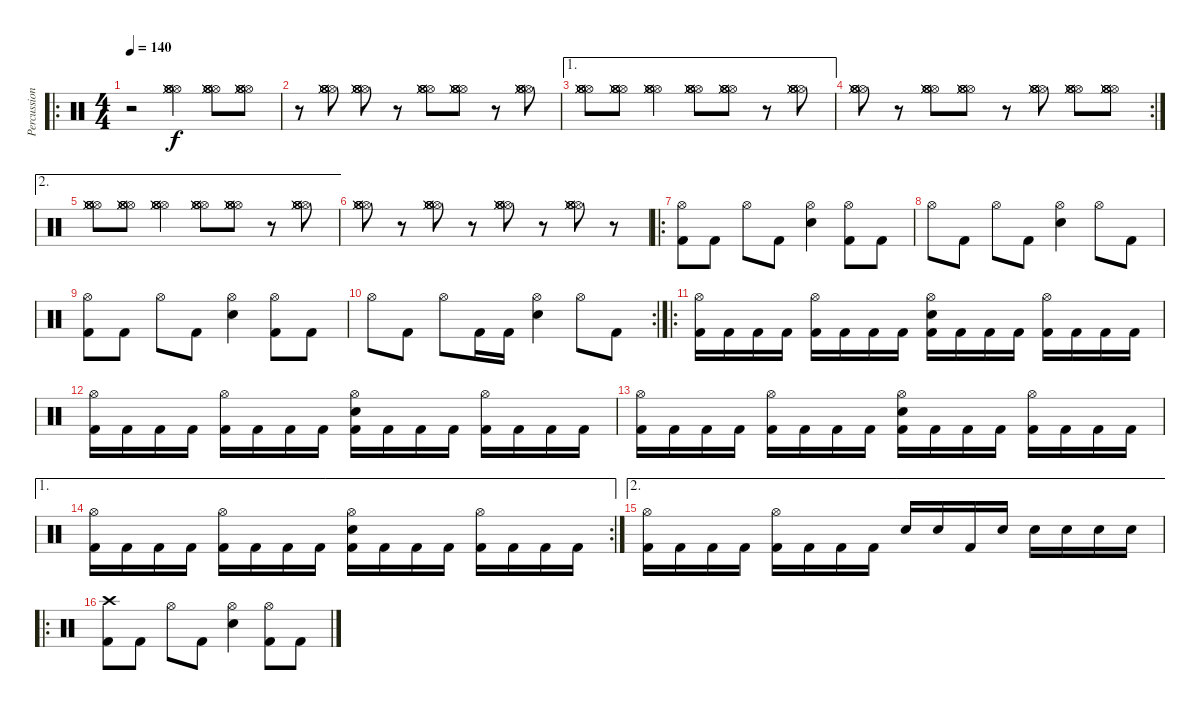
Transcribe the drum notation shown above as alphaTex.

\track ("Percussion" "Percussion") {instrument percussion}
\staff {score}
\articulation defaults
\ro
\ts (4 4)
\tempo 140
\clef neutral
\ks c
r.2{dy f} ("Hi-Hat (open)" "Hi-Hat (open)" "Hi-Hat (open)" "Hi-Hat (closed)" "Hi-Hat (open)" "Hi-Hat (closed)").4 ("Hi-Hat (open)" "Hi-Hat (open)" "Hi-Hat (open)" "Hi-Hat (closed)" "Hi-Hat (open)" "Hi-Hat (closed)").8 ("Hi-Hat (open)" "Hi-Hat (open)" "Hi-Hat (open)" "Hi-Hat (closed)" "Hi-Hat (open)" "Hi-Hat (closed)").8 |
r.8 ("Hi-Hat (open)" "Hi-Hat (open)" "Hi-Hat (open)" "Hi-Hat (closed)" "Hi-Hat (open)" "Hi-Hat (closed)").8 ("Hi-Hat (open)" "Hi-Hat (open)" "Hi-Hat (open)" "Hi-Hat (closed)" "Hi-Hat (open)" "Hi-Hat (closed)").8 r.8 ("Hi-Hat (open)" "Hi-Hat (open)" "Hi-Hat (open)" "Hi-Hat (closed)" "Hi-Hat (open)" "Hi-Hat (closed)").8 ("Hi-Hat (open)" "Hi-Hat (open)" "Hi-Hat (open)" "Hi-Hat (closed)" "Hi-Hat (open)" "Hi-Hat (closed)").8 r.8 ("Hi-Hat (open)" "Hi-Hat (open)" "Hi-Hat (open)" "Hi-Hat (closed)" "Hi-Hat (open)" "Hi-Hat (closed)").8 |
\ae 1
("Hi-Hat (open)" "Hi-Hat (open)" "Hi-Hat (open)" "Hi-Hat (closed)" "Hi-Hat (open)" "Hi-Hat (closed)").8 ("Hi-Hat (open)" "Hi-Hat (open)" "Hi-Hat (open)" "Hi-Hat (closed)" "Hi-Hat (open)" "Hi-Hat (closed)").8 ("Hi-Hat (open)" "Hi-Hat (open)" "Hi-Hat (open)" "Hi-Hat (closed)" "Hi-Hat (open)" "Hi-Hat (closed)").4 ("Hi-Hat (open)" "Hi-Hat (open)" "Hi-Hat (open)" "Hi-Hat (closed)" "Hi-Hat (open)" "Hi-Hat (closed)").8 ("Hi-Hat (open)" "Hi-Hat (open)" "Hi-Hat (open)" "Hi-Hat (closed)" "Hi-Hat (open)" "Hi-Hat (closed)").8 r.8 ("Hi-Hat (open)" "Hi-Hat (open)" "Hi-Hat (open)" "Hi-Hat (closed)" "Hi-Hat (open)" "Hi-Hat (closed)").8 |
\rc 2
("Hi-Hat (open)" "Hi-Hat (open)" "Hi-Hat (open)" "Hi-Hat (closed)" "Hi-Hat (open)" "Hi-Hat (closed)").8 r.8 ("Hi-Hat (open)" "Hi-Hat (open)" "Hi-Hat (open)" "Hi-Hat (closed)" "Hi-Hat (open)" "Hi-Hat (closed)").8 ("Hi-Hat (open)" "Hi-Hat (open)" "Hi-Hat (open)" "Hi-Hat (closed)" "Hi-Hat (open)" "Hi-Hat (closed)").8 r.8 ("Hi-Hat (open)" "Hi-Hat (open)" "Hi-Hat (open)" "Hi-Hat (closed)" "Hi-Hat (open)" "Hi-Hat (closed)").8 ("Hi-Hat (open)" "Hi-Hat (open)" "Hi-Hat (open)" "Hi-Hat (closed)" "Hi-Hat (open)" "Hi-Hat (closed)").8 ("Hi-Hat (open)" "Hi-Hat (open)" "Hi-Hat (open)" "Hi-Hat (closed)" "Hi-Hat (open)" "Hi-Hat (closed)").8 |
\ae 2
("Hi-Hat (open)" "Hi-Hat (open)" "Hi-Hat (open)" "Hi-Hat (closed)" "Hi-Hat (open)" "Hi-Hat (closed)").8 ("Hi-Hat (open)" "Hi-Hat (open)" "Hi-Hat (open)" "Hi-Hat (closed)" "Hi-Hat (open)" "Hi-Hat (closed)").8 ("Hi-Hat (open)" "Hi-Hat (open)" "Hi-Hat (open)" "Hi-Hat (closed)" "Hi-Hat (open)" "Hi-Hat (closed)").4 ("Hi-Hat (open)" "Hi-Hat (open)" "Hi-Hat (open)" "Hi-Hat (closed)" "Hi-Hat (open)" "Hi-Hat (closed)").8 ("Hi-Hat (open)" "Hi-Hat (open)" "Hi-Hat (open)" "Hi-Hat (closed)" "Hi-Hat (open)" "Hi-Hat (closed)").8 r.8 ("Hi-Hat (open)" "Hi-Hat (open)" "Hi-Hat (open)" "Hi-Hat (closed)" "Hi-Hat (open)" "Hi-Hat (closed)").8 |
("Hi-Hat (open)" "Hi-Hat (open)" "Hi-Hat (open)" "Hi-Hat (closed)" "Hi-Hat (open)" "Hi-Hat (closed)").8 r.8 ("Hi-Hat (open)" "Hi-Hat (open)" "Hi-Hat (open)" "Hi-Hat (closed)" "Hi-Hat (open)" "Hi-Hat (closed)").8 r.8 ("Hi-Hat (open)" "Hi-Hat (open)" "Hi-Hat (open)" "Hi-Hat (closed)" "Hi-Hat (open)" "Hi-Hat (closed)").8 r.8 ("Hi-Hat (open)" "Hi-Hat (open)" "Hi-Hat (open)" "Hi-Hat (closed)" "Hi-Hat (open)" "Hi-Hat (closed)").8 r.8 |
\ro
("Hi-Hat (open)" "Kick (hit) 2").8 "Kick (hit) 2".8 "Hi-Hat (open)".8 "Kick (hit) 2".8 ("Hi-Hat (open)" "Electric Snare (hit)").4 ("Hi-Hat (open)" "Kick (hit) 2").8 "Kick (hit) 2".8 |
"Hi-Hat (open)".8 "Kick (hit) 2".8 "Hi-Hat (open)".8 "Kick (hit) 2".8 ("Hi-Hat (open)" "Electric Snare (hit)").4 "Hi-Hat (open)".8 "Kick (hit) 2".8 |
("Hi-Hat (open)" "Kick (hit) 2").8 "Kick (hit) 2".8 "Hi-Hat (open)".8 "Kick (hit) 2".8 ("Hi-Hat (open)" "Electric Snare (hit)").4 ("Hi-Hat (open)" "Kick (hit) 2").8 "Kick (hit) 2".8 |
\rc 2 "Hi-Hat (open)".8 "Kick (hit) 2".8 "Hi-Hat (open)".8 "Kick (hit) 2".16 "Kick (hit) 2".16
("Hi-Hat (open)" "Electric Snare (hit)").4 "Hi-Hat (open)".8 "Kick (hit) 2".8 |
\ro
("Hi-Hat (open)" "Kick (hit) 2").16 "Kick (hit) 2".16 "Kick (hit) 2".16 "Kick (hit) 2".16 ("Hi-Hat (open)" "Kick (hit) 2").16 "Kick (hit) 2".16 "Kick (hit) 2".16 "Kick (hit) 2".16 ("Hi-Hat (open)" "Electric Snare (hit)" "Kick (hit) 2").16 "Kick (hit) 2".16 "Kick (hit) 2".16 "Kick (hit) 2".16 ("Hi-Hat (open)" "Kick (hit) 2").16 "Kick (hit) 2".16 "Kick (hit) 2".16 "Kick (hit) 2".16 |
("Hi-Hat (open)" "Kick (hit) 2").16 "Kick (hit) 2".16 "Kick (hit) 2".16 "Kick (hit) 2".16 ("Hi-Hat (open)" "Kick (hit) 2").16 "Kick (hit) 2".16 "Kick (hit) 2".16 "Kick (hit) 2".16 ("Hi-Hat (open)" "Electric Snare (hit)" "Kick (hit) 2").16 "Kick (hit) 2".16 "Kick (hit) 2".16 "Kick (hit) 2".16 ("Hi-Hat (open)" "Kick (hit) 2").16 "Kick (hit) 2".16 "Kick (hit) 2".16 "Kick (hit) 2".16 |
("Hi-Hat (open)" "Kick (hit) 2").16 "Kick (hit) 2".16 "Kick (hit) 2".16 "Kick (hit) 2".16 ("Hi-Hat (open)" "Kick (hit) 2").16 "Kick (hit) 2".16 "Kick (hit) 2".16 "Kick (hit) 2".16 ("Hi-Hat (open)" "Electric Snare (hit)" "Kick (hit) 2").16 "Kick (hit) 2".16 "Kick (hit) 2".16 "Kick (hit) 2".16 ("Hi-Hat (open)" "Kick (hit) 2").16 "Kick (hit) 2".16 "Kick (hit) 2".16 "Kick (hit) 2".16 |
\ae 1
\rc 2
("Hi-Hat (open)" "Kick (hit) 2").16 "Kick (hit) 2".16 "Kick (hit) 2".16 "Kick (hit) 2".16 ("Hi-Hat (open)" "Kick (hit) 2").16 "Kick (hit) 2".16 "Kick (hit) 2".16 "Kick (hit) 2".16 ("Hi-Hat (open)" "Electric Snare (hit)" "Kick (hit) 2").16 "Kick (hit) 2".16 "Kick (hit) 2".16 "Kick (hit) 2".16 ("Hi-Hat (open)" "Kick (hit) 2").16 "Kick (hit) 2".16 "Kick (hit) 2".16 "Kick (hit) 2".16 |
\ae 2
("Hi-Hat (open)" "Kick (hit) 2").16 "Kick (hit) 2".16 "Kick (hit) 2".16 "Kick (hit) 2".16 ("Hi-Hat (open)" "Kick (hit) 2").16 "Kick (hit) 2".16 "Kick (hit) 2".16 "Kick (hit) 2".16 "Electric Snare (hit)".16 "Electric Snare (hit)".16 "Kick (hit) 2".16 "Electric Snare (hit)".16 "Electric Snare (hit)".16 "Electric Snare (hit)".16 "Electric Snare (hit)".16 "Electric Snare (hit)".16 |
\ro
("Crash high (hit)" "Kick (hit) 2").8 "Kick (hit) 2".8 "Hi-Hat (open)".8 "Kick (hit) 2".8 ("Hi-Hat (open)" "Electric Snare (hit)").4 ("Hi-Hat (open)" "Kick (hit) 2").8 "Kick (hit) 2".8
